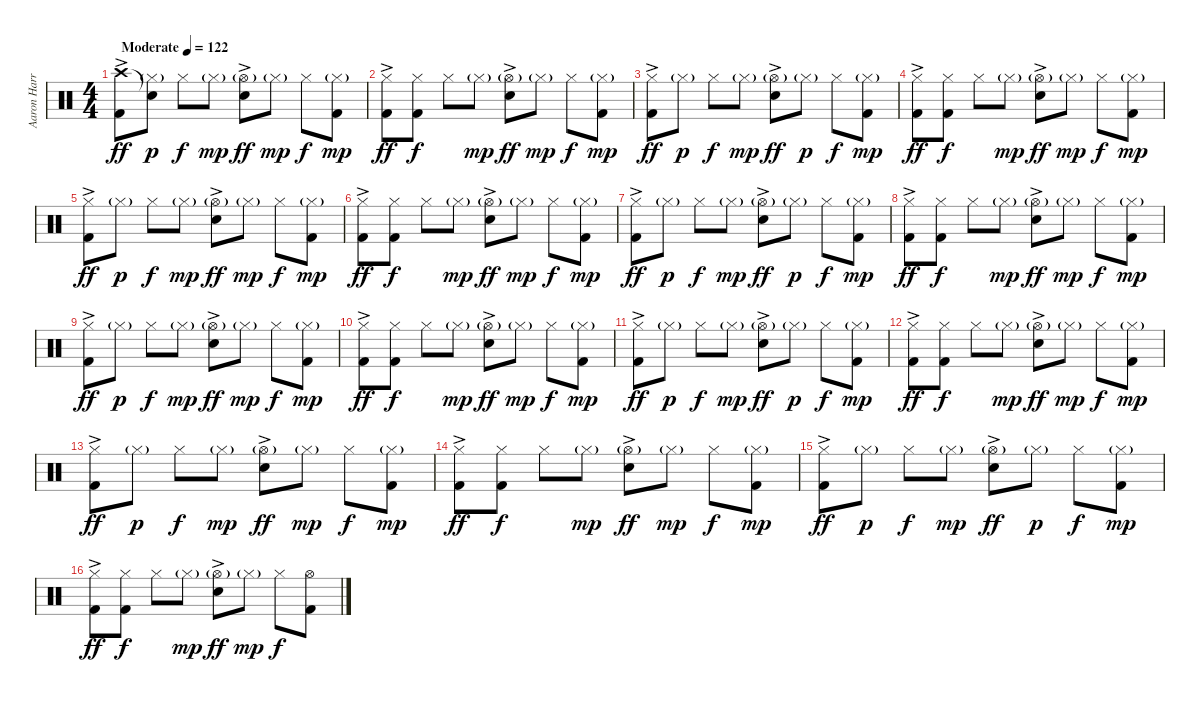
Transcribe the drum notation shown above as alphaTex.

\track ("Aaron Harris" "Aaron Harr") {instrument percussion}
\staff {score}
\articulation defaults
\ts (4 4)
\tempo (122 "Moderate")
\clef neutral
\ks c
("Crash high (hit)" "Kick (hit) 2"{ac}).8{dy ff} ("Snare (hit)"{t} "Hi-Hat (closed)"{g}).8{dy p} "Hi-Hat (closed)".8{dy f} "Hi-Hat (closed)"{g}.8{dy mp} ("Hi-Hat (open)"{g} "Snare (hit) 2"{ac}).8{dy ff} "Hi-Hat (closed)"{g}.8{dy mp} "Hi-Hat (closed)".8{dy f} ("Hi-Hat (closed)"{g} "Kick (hit) 2").8{dy mp} |
("Hi-Hat (closed)" "Kick (hit) 2"{ac}).8{dy ff} ("Hi-Hat (closed)" "Kick (hit) 2").8{dy f} "Hi-Hat (closed)".8 "Hi-Hat (closed)"{g}.8{dy mp} ("Hi-Hat (open)"{g} "Snare (hit) 2"{ac}).8{dy ff} "Hi-Hat (closed)"{g}.8{dy mp} "Hi-Hat (closed)".8{dy f} ("Hi-Hat (closed)"{g} "Kick (hit) 2").8{dy mp} |
("Hi-Hat (closed)" "Kick (hit) 2"{ac}).8{dy ff} "Hi-Hat (closed)"{g}.8{dy p} "Hi-Hat (closed)".8{dy f} "Hi-Hat (closed)"{g}.8{dy mp} ("Hi-Hat (open)"{g} "Snare (hit) 2"{ac}).8{dy ff} "Hi-Hat (closed)"{g}.8{dy p} "Hi-Hat (closed)".8{dy f} ("Hi-Hat (closed)"{g} "Kick (hit) 2").8{dy mp} |
("Hi-Hat (closed)" "Kick (hit) 2"{ac}).8{dy ff} ("Hi-Hat (closed)" "Kick (hit) 2").8{dy f} "Hi-Hat (closed)".8 "Hi-Hat (closed)"{g}.8{dy mp} ("Hi-Hat (open)"{g} "Snare (hit) 2"{ac}).8{dy ff} "Hi-Hat (closed)"{g}.8{dy mp} "Hi-Hat (closed)".8{dy f} ("Hi-Hat (closed)"{g} "Kick (hit) 2").8{dy mp} |
("Hi-Hat (closed)" "Kick (hit) 2"{ac}).8{dy ff} "Hi-Hat (closed)"{g}.8{dy p} "Hi-Hat (closed)".8{dy f} "Hi-Hat (closed)"{g}.8{dy mp} ("Hi-Hat (open)"{g} "Snare (hit) 2"{ac}).8{dy ff} "Hi-Hat (closed)"{g}.8{dy mp} "Hi-Hat (closed)".8{dy f} ("Hi-Hat (closed)"{g} "Kick (hit) 2").8{dy mp} |
("Hi-Hat (closed)" "Kick (hit) 2"{ac}).8{dy ff} ("Hi-Hat (closed)" "Kick (hit) 2").8{dy f} "Hi-Hat (closed)".8 "Hi-Hat (closed)"{g}.8{dy mp} ("Hi-Hat (open)"{g} "Snare (hit) 2"{ac}).8{dy ff} "Hi-Hat (closed)"{g}.8{dy mp} "Hi-Hat (closed)".8{dy f} ("Hi-Hat (closed)"{g} "Kick (hit) 2").8{dy mp} |
("Hi-Hat (closed)" "Kick (hit) 2"{ac}).8{dy ff} "Hi-Hat (closed)"{g}.8{dy p} "Hi-Hat (closed)".8{dy f} "Hi-Hat (closed)"{g}.8{dy mp} ("Hi-Hat (open)"{g} "Snare (hit) 2"{ac}).8{dy ff} "Hi-Hat (closed)"{g}.8{dy p} "Hi-Hat (closed)".8{dy f} ("Hi-Hat (closed)"{g} "Kick (hit) 2").8{dy mp} |
("Hi-Hat (closed)" "Kick (hit) 2"{ac}).8{dy ff} ("Hi-Hat (closed)" "Kick (hit) 2").8{dy f} "Hi-Hat (closed)".8 "Hi-Hat (closed)"{g}.8{dy mp} ("Hi-Hat (open)"{g} "Snare (hit) 2"{ac}).8{dy ff} "Hi-Hat (closed)"{g}.8{dy mp} "Hi-Hat (closed)".8{dy f} ("Hi-Hat (closed)"{g} "Kick (hit) 2").8{dy mp} |
("Hi-Hat (closed)" "Kick (hit) 2"{ac}).8{dy ff} "Hi-Hat (closed)"{g}.8{dy p} "Hi-Hat (closed)".8{dy f} "Hi-Hat (closed)"{g}.8{dy mp} ("Hi-Hat (open)"{g} "Snare (hit) 2"{ac}).8{dy ff} "Hi-Hat (closed)"{g}.8{dy mp} "Hi-Hat (closed)".8{dy f} ("Hi-Hat (closed)"{g} "Kick (hit) 2").8{dy mp} |
("Hi-Hat (closed)" "Kick (hit) 2"{ac}).8{dy ff} ("Hi-Hat (closed)" "Kick (hit) 2").8{dy f} "Hi-Hat (closed)".8 "Hi-Hat (closed)"{g}.8{dy mp} ("Hi-Hat (open)"{g} "Snare (hit) 2"{ac}).8{dy ff} "Hi-Hat (closed)"{g}.8{dy mp} "Hi-Hat (closed)".8{dy f} ("Hi-Hat (closed)"{g} "Kick (hit) 2").8{dy mp} |
("Hi-Hat (closed)" "Kick (hit) 2"{ac}).8{dy ff} "Hi-Hat (closed)"{g}.8{dy p} "Hi-Hat (closed)".8{dy f} "Hi-Hat (closed)"{g}.8{dy mp} ("Hi-Hat (open)"{g} "Snare (hit) 2"{ac}).8{dy ff} "Hi-Hat (closed)"{g}.8{dy p} "Hi-Hat (closed)".8{dy f} ("Hi-Hat (closed)"{g} "Kick (hit) 2").8{dy mp} |
("Hi-Hat (closed)" "Kick (hit) 2"{ac}).8{dy ff} ("Hi-Hat (closed)" "Kick (hit) 2").8{dy f} "Hi-Hat (closed)".8 "Hi-Hat (closed)"{g}.8{dy mp} ("Hi-Hat (open)"{g} "Snare (hit) 2"{ac}).8{dy ff} "Hi-Hat (closed)"{g}.8{dy mp} "Hi-Hat (closed)".8{dy f} ("Hi-Hat (closed)"{g} "Kick (hit) 2").8{dy mp} |
("Hi-Hat (closed)" "Kick (hit) 2"{ac}).8{dy ff} "Hi-Hat (closed)"{g}.8{dy p} "Hi-Hat (closed)".8{dy f} "Hi-Hat (closed)"{g}.8{dy mp} ("Hi-Hat (open)"{g} "Snare (hit) 2"{ac}).8{dy ff} "Hi-Hat (closed)"{g}.8{dy mp} "Hi-Hat (closed)".8{dy f} ("Hi-Hat (closed)"{g} "Kick (hit) 2").8{dy mp} |
("Hi-Hat (closed)" "Kick (hit) 2"{ac}).8{dy ff} ("Hi-Hat (closed)" "Kick (hit) 2").8{dy f} "Hi-Hat (closed)".8 "Hi-Hat (closed)"{g}.8{dy mp} ("Hi-Hat (open)"{g} "Snare (hit) 2"{ac}).8{dy ff} "Hi-Hat (closed)"{g}.8{dy mp} "Hi-Hat (closed)".8{dy f} ("Hi-Hat (closed)"{g} "Kick (hit) 2").8{dy mp} |
("Hi-Hat (closed)" "Kick (hit) 2"{ac}).8{dy ff} "Hi-Hat (closed)"{g}.8{dy p} "Hi-Hat (closed)".8{dy f} "Hi-Hat (closed)"{g}.8{dy mp} ("Hi-Hat (open)"{g} "Snare (hit) 2"{ac}).8{dy ff} "Hi-Hat (closed)"{g}.8{dy p} "Hi-Hat (closed)".8{dy f} ("Hi-Hat (closed)"{g} "Kick (hit) 2").8{dy mp} |
("Hi-Hat (closed)" "Kick (hit) 2"{ac}).8{dy ff} ("Hi-Hat (closed)" "Kick (hit) 2").8{dy f} "Hi-Hat (closed)".8 "Hi-Hat (closed)"{g}.8{dy mp} ("Hi-Hat (open)"{g} "Snare (hit) 2"{ac}).8{dy ff} "Hi-Hat (closed)"{g}.8{dy mp} "Hi-Hat (closed)".8{dy f} ("Hi-Hat (open)" "Kick (hit) 2").8
